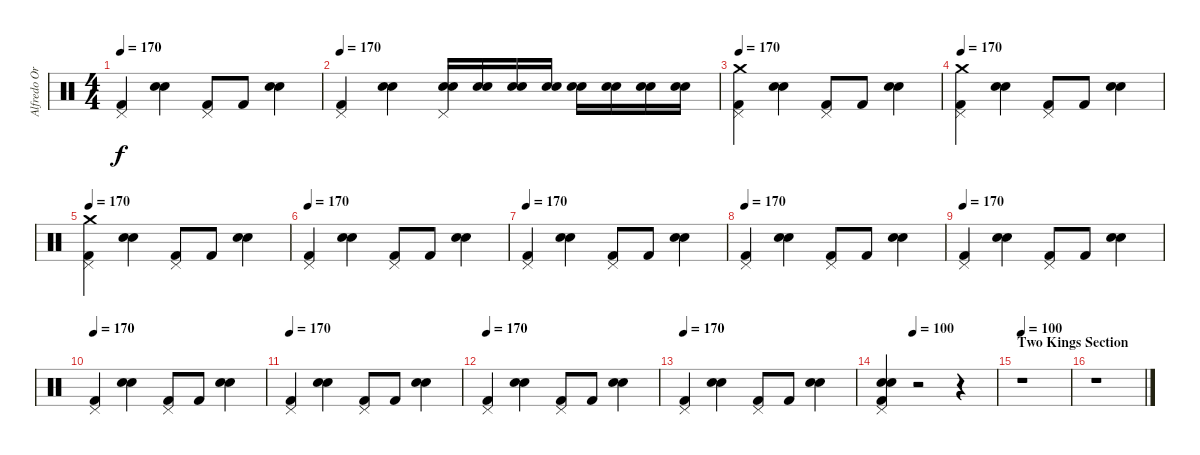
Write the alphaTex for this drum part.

\track ("Alfredo Ortiz (Drums)" "Alfredo Or") {instrument percussion}
\staff {score}
\articulation defaults
\ts (4 4)
\tempo 170
\clef neutral
\ks c
("Kick (hit) 2" "Pedal Hi-Hat (hit)").4{dy f} ("Snare (hit) 2" "Electric Snare (hit)").4 ("Kick (hit) 2" "Pedal Hi-Hat (hit)").8 "Kick (hit) 2".8 ("Snare (hit) 2" "Electric Snare (hit)").4 |
\tempo 170
("Kick (hit) 2" "Pedal Hi-Hat (hit)").4 ("Snare (hit) 2" "Electric Snare (hit)").4 ("Snare (hit) 2" "Electric Snare (hit)" "Pedal Hi-Hat (hit)").16 ("Snare (hit) 2" "Electric Snare (hit)").16 ("Snare (hit) 2" "Electric Snare (hit)").16 ("Snare (hit) 2" "Electric Snare (hit)").16 ("Snare (hit) 2" "Electric Snare (hit)").16 ("Snare (hit) 2" "Electric Snare (hit)").16 ("Snare (hit) 2" "Electric Snare (hit)").16 ("Snare (hit) 2" "Electric Snare (hit)").16 |
\tempo 170
("Kick (hit) 2" "Pedal Hi-Hat (hit)" "Crash medium (hit)").4 ("Snare (hit) 2" "Electric Snare (hit)").4 ("Kick (hit) 2" "Pedal Hi-Hat (hit)").8 "Kick (hit) 2".8 ("Snare (hit) 2" "Electric Snare (hit)").4 |
\tempo 170
("Kick (hit) 2" "Pedal Hi-Hat (hit)" "Crash medium (hit)").4 ("Snare (hit) 2" "Electric Snare (hit)").4 ("Kick (hit) 2" "Pedal Hi-Hat (hit)").8 "Kick (hit) 2".8 ("Snare (hit) 2" "Electric Snare (hit)").4 |
\tempo 170
("Kick (hit) 2" "Pedal Hi-Hat (hit)" "Crash medium (hit)").4 ("Snare (hit) 2" "Electric Snare (hit)").4 ("Kick (hit) 2" "Pedal Hi-Hat (hit)").8 "Kick (hit) 2".8 ("Snare (hit) 2" "Electric Snare (hit)").4 |
\tempo 170
("Kick (hit) 2" "Pedal Hi-Hat (hit)").4 ("Snare (hit) 2" "Electric Snare (hit)").4 ("Kick (hit) 2" "Pedal Hi-Hat (hit)").8 "Kick (hit) 2".8 ("Snare (hit) 2" "Electric Snare (hit)").4 |
\tempo 170
("Kick (hit) 2" "Pedal Hi-Hat (hit)").4 ("Snare (hit) 2" "Electric Snare (hit)").4 ("Kick (hit) 2" "Pedal Hi-Hat (hit)").8 "Kick (hit) 2".8 ("Snare (hit) 2" "Electric Snare (hit)").4 |
\tempo 170
("Kick (hit) 2" "Pedal Hi-Hat (hit)").4 ("Snare (hit) 2" "Electric Snare (hit)").4 ("Kick (hit) 2" "Pedal Hi-Hat (hit)").8 "Kick (hit) 2".8 ("Snare (hit) 2" "Electric Snare (hit)").4 |
\tempo 170
("Kick (hit) 2" "Pedal Hi-Hat (hit)").4 ("Snare (hit) 2" "Electric Snare (hit)").4 ("Kick (hit) 2" "Pedal Hi-Hat (hit)").8 "Kick (hit) 2".8 ("Snare (hit) 2" "Electric Snare (hit)").4 |
\tempo 170
("Kick (hit) 2" "Pedal Hi-Hat (hit)").4 ("Snare (hit) 2" "Electric Snare (hit)").4 ("Kick (hit) 2" "Pedal Hi-Hat (hit)").8 "Kick (hit) 2".8 ("Snare (hit) 2" "Electric Snare (hit)").4 |
\tempo 170
("Kick (hit) 2" "Pedal Hi-Hat (hit)").4 ("Snare (hit) 2" "Electric Snare (hit)").4 ("Kick (hit) 2" "Pedal Hi-Hat (hit)").8 "Kick (hit) 2".8 ("Snare (hit) 2" "Electric Snare (hit)").4 |
\tempo 170
("Kick (hit) 2" "Pedal Hi-Hat (hit)").4 ("Snare (hit) 2" "Electric Snare (hit)").4 ("Kick (hit) 2" "Pedal Hi-Hat (hit)").8 "Kick (hit) 2".8 ("Snare (hit) 2" "Electric Snare (hit)").4 |
\tempo 170
("Kick (hit) 2" "Pedal Hi-Hat (hit)").4 ("Snare (hit) 2" "Electric Snare (hit)").4 ("Kick (hit) 2" "Pedal Hi-Hat (hit)").8 "Kick (hit) 2".8 ("Snare (hit) 2" "Electric Snare (hit)").4 |
\tempo (100 0.25)
("Kick (hit) 2" "Snare (hit) 2" "Pedal Hi-Hat (hit)" "Electric Snare (hit)").4 r.2 r.4 |
\section ("" "Two Kings Section")
\tempo 100
r.1 |
r.1
